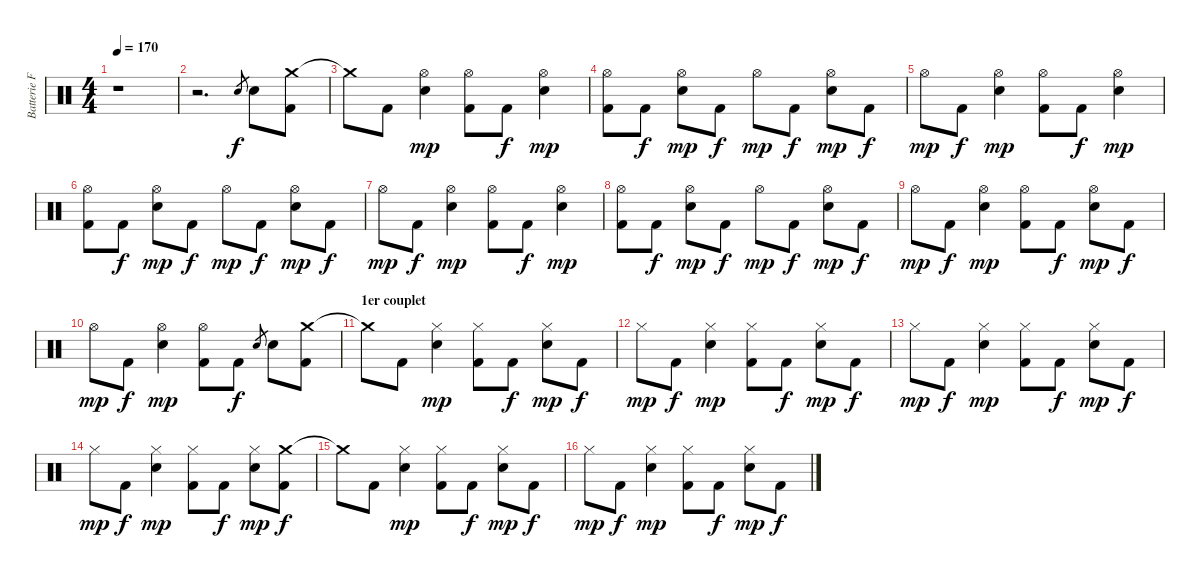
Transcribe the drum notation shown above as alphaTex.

\track ("Batterie Franck" "Batterie F") {instrument percussion}
\staff {score}
\articulation defaults
\ts (4 4)
\tempo 170
\clef neutral
\ks c
r.1{dy f} |
r.2{d} "Snare (hit) 2".8{gr} "Snare (hit) 2".8 ("Crash medium (hit)" "Kick (hit) 2").8 |
"Crash medium (hit)"{t}.8 "Kick (hit) 2".8 ("Hi-Hat (open)" "Snare (hit) 2").4{dy mp} ("Hi-Hat (open)" "Kick (hit) 2").8 "Kick (hit) 2".8{dy f} ("Hi-Hat (open)" "Snare (hit) 2").4{dy mp} |
("Hi-Hat (open)" "Kick (hit) 2").8 "Kick (hit) 2".8{dy f} ("Hi-Hat (open)" "Snare (hit) 2").8{dy mp} "Kick (hit) 2".8{dy f} "Hi-Hat (open)".8{dy mp} "Kick (hit) 2".8{dy f} ("Hi-Hat (open)" "Snare (hit) 2").8{dy mp} "Kick (hit) 2".8{dy f} |
"Hi-Hat (open)".8{dy mp} "Kick (hit) 2".8{dy f} ("Hi-Hat (open)" "Snare (hit) 2").4{dy mp} ("Hi-Hat (open)" "Kick (hit) 2").8 "Kick (hit) 2".8{dy f} ("Hi-Hat (open)" "Snare (hit) 2").4{dy mp} |
("Hi-Hat (open)" "Kick (hit) 2").8 "Kick (hit) 2".8{dy f} ("Hi-Hat (open)" "Snare (hit) 2").8{dy mp} "Kick (hit) 2".8{dy f} "Hi-Hat (open)".8{dy mp} "Kick (hit) 2".8{dy f} ("Hi-Hat (open)" "Snare (hit) 2").8{dy mp} "Kick (hit) 2".8{dy f} |
"Hi-Hat (open)".8{dy mp} "Kick (hit) 2".8{dy f} ("Hi-Hat (open)" "Snare (hit) 2").4{dy mp} ("Hi-Hat (open)" "Kick (hit) 2").8 "Kick (hit) 2".8{dy f} ("Hi-Hat (open)" "Snare (hit) 2").4{dy mp} |
("Hi-Hat (open)" "Kick (hit) 2").8 "Kick (hit) 2".8{dy f} ("Hi-Hat (open)" "Snare (hit) 2").8{dy mp} "Kick (hit) 2".8{dy f} "Hi-Hat (open)".8{dy mp} "Kick (hit) 2".8{dy f} ("Hi-Hat (open)" "Snare (hit) 2").8{dy mp} "Kick (hit) 2".8{dy f} |
"Hi-Hat (open)".8{dy mp} "Kick (hit) 2".8{dy f} ("Hi-Hat (open)" "Snare (hit) 2").4{dy mp} ("Hi-Hat (open)" "Kick (hit) 2").8 "Kick (hit) 2".8{dy f} ("Hi-Hat (open)" "Snare (hit) 2").8{dy mp} "Kick (hit) 2".8{dy f} |
"Hi-Hat (open)".8{dy mp} "Kick (hit) 2".8{dy f} ("Hi-Hat (open)" "Snare (hit) 2").4{dy mp} ("Hi-Hat (open)" "Kick (hit) 2").8 "Kick (hit) 2".8{dy f} "Snare (hit) 2".8{gr} "Snare (hit) 2".8 ("Crash medium (hit)" "Kick (hit) 2").8 |
\section ("" "1er couplet")
"Crash medium (hit)"{t}.8 "Kick (hit) 2".8 ("Hi-Hat (closed)" "Snare (hit) 2").4{dy mp} ("Hi-Hat (closed)" "Kick (hit) 2").8 "Kick (hit) 2".8{dy f} ("Hi-Hat (closed)" "Snare (hit) 2").8{dy mp} "Kick (hit) 2".8{dy f} |
"Hi-Hat (closed)".8{dy mp} "Kick (hit) 2".8{dy f} ("Hi-Hat (closed)" "Snare (hit) 2").4{dy mp} ("Hi-Hat (closed)" "Kick (hit) 2").8 "Kick (hit) 2".8{dy f} ("Hi-Hat (closed)" "Snare (hit) 2").8{dy mp} "Kick (hit) 2".8{dy f} |
"Hi-Hat (closed)".8{dy mp} "Kick (hit) 2".8{dy f} ("Hi-Hat (closed)" "Snare (hit) 2").4{dy mp} ("Hi-Hat (closed)" "Kick (hit) 2").8 "Kick (hit) 2".8{dy f} ("Hi-Hat (closed)" "Snare (hit) 2").8{dy mp} "Kick (hit) 2".8{dy f} |
"Hi-Hat (closed)".8{dy mp} "Kick (hit) 2".8{dy f} ("Hi-Hat (closed)" "Snare (hit) 2").4{dy mp} ("Hi-Hat (closed)" "Kick (hit) 2").8 "Kick (hit) 2".8{dy f} ("Hi-Hat (closed)" "Snare (hit) 2").8{dy mp} ("Crash medium (hit)" "Kick (hit) 2").8{dy f} |
"Crash medium (hit)"{t}.8 "Kick (hit) 2".8 ("Hi-Hat (closed)" "Snare (hit) 2").4{dy mp} ("Hi-Hat (closed)" "Kick (hit) 2").8 "Kick (hit) 2".8{dy f} ("Hi-Hat (closed)" "Snare (hit) 2").8{dy mp} "Kick (hit) 2".8{dy f} |
"Hi-Hat (closed)".8{dy mp} "Kick (hit) 2".8{dy f} ("Hi-Hat (closed)" "Snare (hit) 2").4{dy mp} ("Hi-Hat (closed)" "Kick (hit) 2").8 "Kick (hit) 2".8{dy f} ("Hi-Hat (closed)" "Snare (hit) 2").8{dy mp} "Kick (hit) 2".8{dy f}
